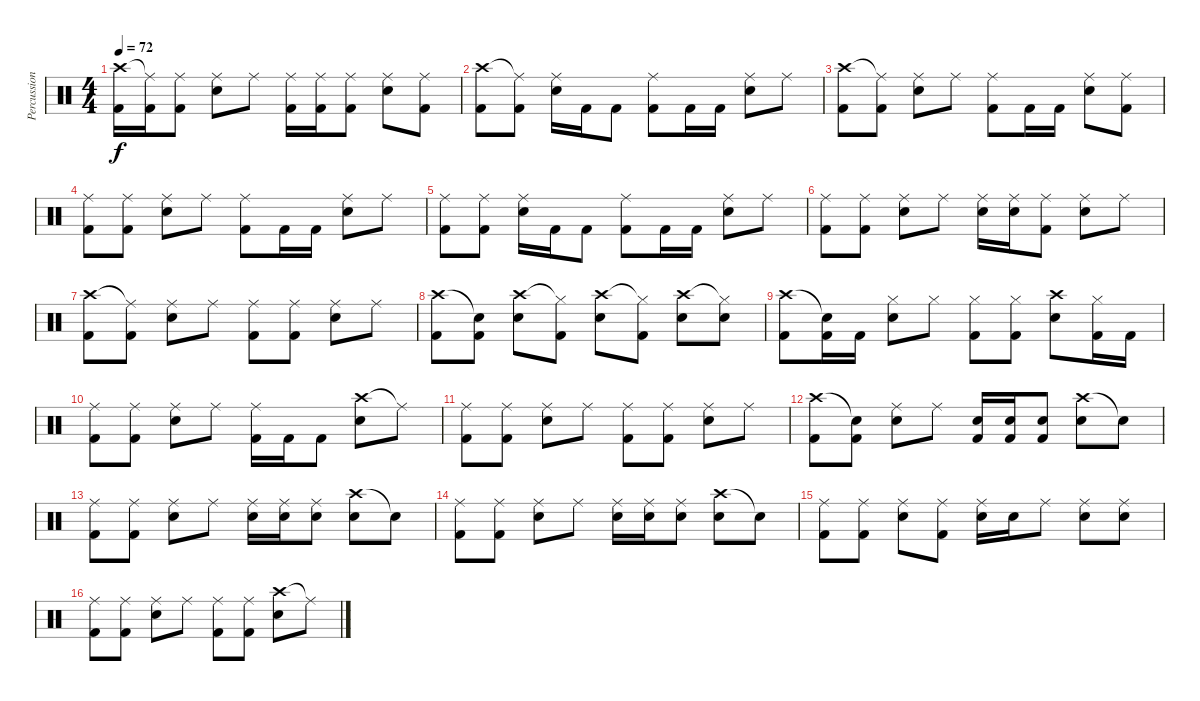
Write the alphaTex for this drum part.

\track ("Percussion" "Percussion") {instrument percussion}
\staff {score}
\articulation defaults
\ts (4 4)
\tempo 72
\clef neutral
\ks c
("Crash high (hit)" "Kick (hit) 2").16{dy f} ("Ride (middle)"{t} "Kick (hit) 2").16 ("Ride (middle)" "Kick (hit) 2").8 ("Ride (middle)" "Electric Snare (hit)").8 "Ride (middle)".8 ("Ride (middle)" "Kick (hit) 2").16 ("Ride (middle)" "Kick (hit) 2").16 ("Ride (middle)" "Kick (hit) 2").8 ("Ride (middle)" "Electric Snare (hit)").8 ("Ride (middle)" "Kick (hit) 2").8 |
("Crash high (hit)" "Kick (hit) 2").8 ("Ride (middle)"{t} "Kick (hit) 2").8 ("Ride (middle)" "Electric Snare (hit)").16 "Kick (hit) 2".16 "Kick (hit) 2".8 ("Ride (middle)" "Kick (hit) 2").8 "Kick (hit) 2".16 "Kick (hit) 2".16 ("Ride (middle)" "Electric Snare (hit)").8 "Ride (middle)".8 |
("Crash high (hit)" "Kick (hit) 2").8 ("Ride (middle)"{t} "Kick (hit) 2").8 ("Ride (middle)" "Electric Snare (hit)").8 "Ride (middle)".8 ("Ride (middle)" "Kick (hit) 2").8 "Kick (hit) 2".16 "Kick (hit) 2".16 ("Ride (middle)" "Electric Snare (hit)").8 ("Ride (middle)" "Kick (hit) 2").8 |
("Ride (middle)" "Kick (hit) 2").8 ("Ride (middle)" "Kick (hit) 2").8 ("Ride (middle)" "Electric Snare (hit)").8 "Ride (middle)".8 ("Ride (middle)" "Kick (hit) 2").8 "Kick (hit) 2".16 "Kick (hit) 2".16 ("Ride (middle)" "Electric Snare (hit)").8 "Ride (middle)".8 |
("Ride (middle)" "Kick (hit) 2").8 ("Ride (middle)" "Kick (hit) 2").8 ("Ride (middle)" "Electric Snare (hit)").16 "Kick (hit) 2".16 "Kick (hit) 2".8 ("Ride (middle)" "Kick (hit) 2").8 "Kick (hit) 2".16 "Kick (hit) 2".16 ("Ride (middle)" "Electric Snare (hit)").8 "Ride (middle)".8 |
("Ride (middle)" "Kick (hit) 2").8 ("Ride (middle)" "Kick (hit) 2").8 ("Ride (middle)" "Electric Snare (hit)").8 "Ride (middle)".8 ("Ride (middle)" "Electric Snare (hit)").16 ("Ride (middle)" "Electric Snare (hit)").16 ("Ride (middle)" "Kick (hit) 2").8 ("Ride (middle)" "Electric Snare (hit)").8 "Ride (middle)".8 |
("Crash high (hit)" "Kick (hit) 2").8 ("Ride (middle)"{t} "Kick (hit) 2").8 ("Ride (middle)" "Electric Snare (hit)").8 "Ride (middle)".8 ("Ride (middle)" "Kick (hit) 2").8 ("Ride (middle)" "Kick (hit) 2").8 ("Ride (middle)" "Electric Snare (hit)").8 "Ride (middle)".8 |
("Crash high (hit)" "Kick (hit) 2").8 ("Snare (hit)"{t} "Kick (hit) 2").8 ("Crash high (hit)" "Electric Snare (hit)").8 ("Hi-Hat (closed)"{t} "Kick (hit) 2").8 ("Crash high (hit)" "Electric Snare (hit)").8 ("Hi-Hat (closed)"{t} "Kick (hit) 2").8 ("Crash high (hit)" "Electric Snare (hit)").8 ("Hi-Hat (closed)"{t} "Electric Snare (hit)").8 |
("Crash high (hit)" "Kick (hit) 2").8 ("Snare (hit)"{t} "Kick (hit) 2").16 "Kick (hit) 2".16 ("Hi-Hat (closed)" "Electric Snare (hit)").8 "Hi-Hat (closed)".8 ("Hi-Hat (closed)" "Kick (hit) 2").8 ("Hi-Hat (closed)" "Kick (hit) 2").8 ("Crash high (hit)" "Electric Snare (hit)").8 ("Hi-Hat (closed)" "Kick (hit) 2").16 "Kick (hit) 2".16 |
("Ride (middle)" "Kick (hit) 2").8 ("Ride (middle)" "Kick (hit) 2").8 ("Ride (middle)" "Electric Snare (hit)").8 "Ride (middle)".8 ("Ride (middle)" "Kick (hit) 2").16 "Kick (hit) 2".16 "Kick (hit) 2".8 ("Crash high (hit)" "Electric Snare (hit)").8 "Ride (middle)"{t}.8 |
("Ride (middle)" "Kick (hit) 2").8 ("Ride (middle)" "Kick (hit) 2").8 ("Ride (middle)" "Electric Snare (hit)").8 "Ride (middle)".8 ("Ride (middle)" "Kick (hit) 2").8 ("Ride (middle)" "Kick (hit) 2").8 ("Ride (middle)" "Electric Snare (hit)").8 "Ride (middle)".8 |
("Crash high (hit)" "Kick (hit) 2").8 ("Snare (hit)"{t} "Kick (hit) 2").8 ("Ride (middle)" "Electric Snare (hit)").8 "Ride (middle)".8 ("Electric Snare (hit)" "Kick (hit) 2").16 ("Electric Snare (hit)" "Kick (hit) 2").16 ("Electric Snare (hit)" "Kick (hit) 2").8 ("Crash high (hit)" "Electric Snare (hit)").8 "Snare (hit)"{t}.8 |
("Ride (middle)" "Kick (hit) 2").8 ("Ride (middle)" "Kick (hit) 2").8 ("Ride (middle)" "Electric Snare (hit)").8 "Ride (middle)".8 ("Ride (middle)" "Electric Snare (hit)").16 ("Ride (middle)" "Electric Snare (hit)").16 ("Ride (middle)" "Electric Snare (hit)").8 ("Crash high (hit)" "Electric Snare (hit)").8 "Snare (hit)"{t}.8 |
("Ride (middle)" "Kick (hit) 2").8 ("Ride (middle)" "Kick (hit) 2").8 ("Ride (middle)" "Electric Snare (hit)").8 "Ride (middle)".8 ("Ride (middle)" "Electric Snare (hit)").16 ("Ride (middle)" "Electric Snare (hit)").16 ("Ride (middle)" "Electric Snare (hit)").8 ("Crash high (hit)" "Electric Snare (hit)").8 "Snare (hit)"{t}.8 |
("Ride (middle)" "Kick (hit) 2").8 ("Ride (middle)" "Kick (hit) 2").8 ("Ride (middle)" "Electric Snare (hit)").8 ("Ride (middle)" "Kick (hit) 2").8 ("Ride (middle)" "Electric Snare (hit)").16 "Electric Snare (hit)".16 "Ride (middle)".8 ("Ride (middle)" "Electric Snare (hit)").8 ("Ride (middle)" "Electric Snare (hit)").8 |
("Ride (middle)" "Kick (hit) 2").8 ("Ride (middle)" "Kick (hit) 2").8 ("Ride (middle)" "Electric Snare (hit)").8 "Ride (middle)".8 ("Ride (middle)" "Kick (hit) 2").8 ("Ride (middle)" "Kick (hit) 2").8 ("Crash high (hit)" "Electric Snare (hit)").8 "Ride (middle)"{t}.8
